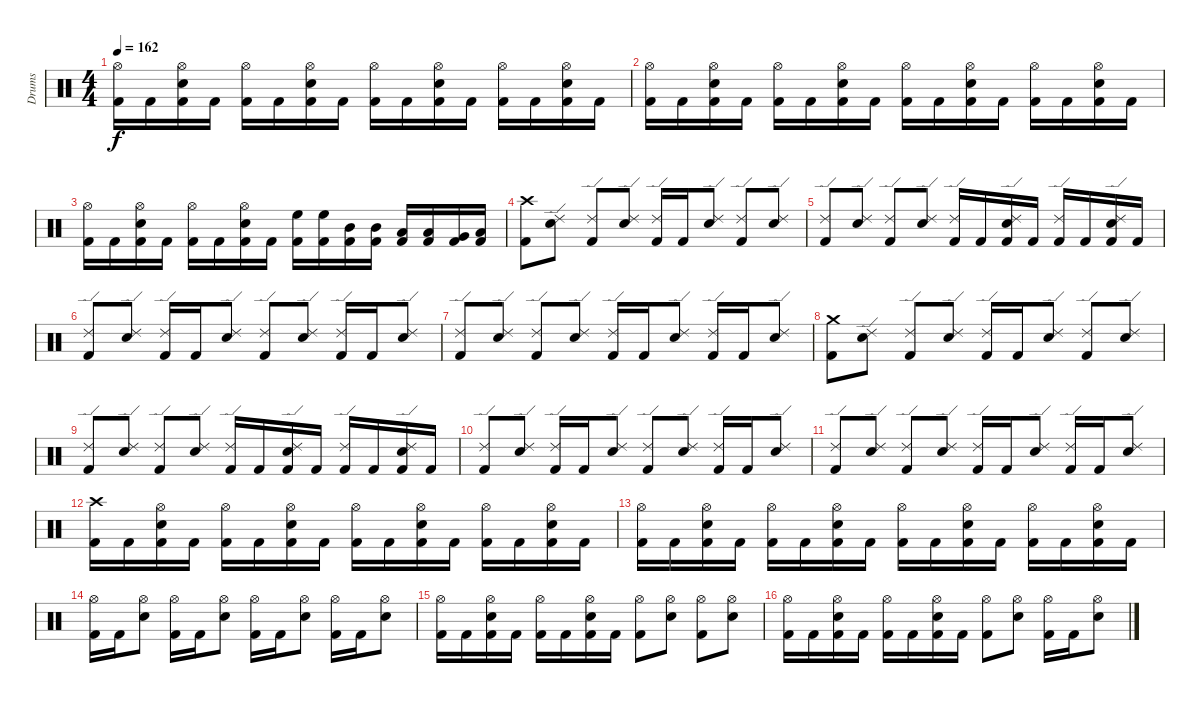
\track ("Drums" "Drums") {instrument percussion}
\staff {score}
\articulation defaults
\ts (4 4)
\tempo 162
\clef neutral
\ks c
("Kick (hit) 2" "Hi-Hat (open)").16{dy f} "Kick (hit) 2".16 ("Kick (hit) 2" "Snare (hit) 2" "Hi-Hat (open)").16 "Kick (hit) 2".16 ("Kick (hit) 2" "Hi-Hat (open)").16 "Kick (hit) 2".16 ("Kick (hit) 2" "Snare (hit) 2" "Hi-Hat (open)").16 "Kick (hit) 2".16 ("Kick (hit) 2" "Hi-Hat (open)").16 "Kick (hit) 2".16 ("Kick (hit) 2" "Snare (hit) 2" "Hi-Hat (open)").16 "Kick (hit) 2".16 ("Kick (hit) 2" "Hi-Hat (open)").16 "Kick (hit) 2".16 ("Kick (hit) 2" "Snare (hit) 2" "Hi-Hat (open)").16 "Kick (hit) 2".16 |
("Kick (hit) 2" "Hi-Hat (open)").16 "Kick (hit) 2".16 ("Kick (hit) 2" "Snare (hit) 2" "Hi-Hat (open)").16 "Kick (hit) 2".16 ("Kick (hit) 2" "Hi-Hat (open)").16 "Kick (hit) 2".16 ("Kick (hit) 2" "Snare (hit) 2" "Hi-Hat (open)").16 "Kick (hit) 2".16 ("Kick (hit) 2" "Hi-Hat (open)").16 "Kick (hit) 2".16 ("Kick (hit) 2" "Snare (hit) 2" "Hi-Hat (open)").16 "Kick (hit) 2".16 ("Kick (hit) 2" "Hi-Hat (open)").16 "Kick (hit) 2".16 ("Kick (hit) 2" "Snare (hit) 2" "Hi-Hat (open)").16 "Kick (hit) 2".16 |
("Kick (hit) 2" "Hi-Hat (open)").16 "Kick (hit) 2".16 ("Kick (hit) 2" "Snare (hit) 2" "Hi-Hat (open)").16 "Kick (hit) 2".16 ("Kick (hit) 2" "Hi-Hat (open)").16 "Kick (hit) 2".16 ("Kick (hit) 2" "Snare (hit) 2" "Hi-Hat (open)").16 "Kick (hit) 2".16 ("Kick (hit) 2" "High Floor Tom (hit)").16 ("Kick (hit) 2" "High Floor Tom (hit)").16 ("Kick (hit) 2" "Mid Tom (hit)").16 ("Kick (hit) 2" "Mid Tom (hit)").16 ("Kick (hit) 2" "Low Tom (hit)").16 ("Kick (hit) 2" "Low Tom (hit)").16 ("Kick (hit) 2" "Very Low Tom (hit)").16 ("Kick (hit) 2" "Low Floor Tom (hit)").16 |
\section ("" "")
("Kick (hit) 2" "Crash high (hit)").8 ("Snare (hit) 2" "Ride (edge) 2").8 ("Kick (hit) 2" "Ride (edge) 2").8 ("Snare (hit) 2" "Ride (edge) 2").8 ("Kick (hit) 2" "Ride (edge) 2").16 "Kick (hit) 2".16 ("Snare (hit) 2" "Ride (edge) 2").8 ("Kick (hit) 2" "Ride (edge) 2").8 ("Snare (hit) 2" "Ride (edge) 2").8 |
("Kick (hit) 2" "Ride (edge) 2").8 ("Snare (hit) 2" "Ride (edge) 2").8 ("Kick (hit) 2" "Ride (edge) 2").8 ("Snare (hit) 2" "Ride (edge) 2").8 ("Kick (hit) 2" "Ride (edge) 2").16 "Kick (hit) 2".16 ("Kick (hit) 2" "Snare (hit) 2" "Ride (edge) 2").16 "Kick (hit) 2".16 ("Kick (hit) 2" "Ride (edge) 2").16 "Kick (hit) 2".16 ("Kick (hit) 2" "Snare (hit) 2" "Ride (edge) 2").16 "Kick (hit) 2".16 |
("Kick (hit) 2" "Ride (edge) 2").8 ("Snare (hit) 2" "Ride (edge) 2").8 ("Kick (hit) 2" "Ride (edge) 2").16 "Kick (hit) 2".16 ("Snare (hit) 2" "Ride (edge) 2").8 ("Kick (hit) 2" "Ride (edge) 2").8 ("Snare (hit) 2" "Ride (edge) 2").8 ("Kick (hit) 2" "Ride (edge) 2").16 "Kick (hit) 2".16 ("Snare (hit) 2" "Ride (edge) 2").8 |
("Kick (hit) 2" "Ride (edge) 2").8 ("Snare (hit) 2" "Ride (edge) 2").8 ("Kick (hit) 2" "Ride (edge) 2").8 ("Snare (hit) 2" "Ride (edge) 2").8 ("Kick (hit) 2" "Ride (edge) 2").16 "Kick (hit) 2".16 ("Snare (hit) 2" "Ride (edge) 2").8 ("Kick (hit) 2" "Ride (edge) 2").16 "Kick (hit) 2".16 ("Snare (hit) 2" "Ride (edge) 2").8 |
("Kick (hit) 2" "Crash medium (hit)").8 ("Snare (hit) 2" "Ride (edge) 2").8 ("Kick (hit) 2" "Ride (edge) 2").8 ("Snare (hit) 2" "Ride (edge) 2").8 ("Kick (hit) 2" "Ride (edge) 2").16 "Kick (hit) 2".16 ("Snare (hit) 2" "Ride (edge) 2").8 ("Kick (hit) 2" "Ride (edge) 2").8 ("Snare (hit) 2" "Ride (edge) 2").8 |
("Kick (hit) 2" "Ride (edge) 2").8 ("Snare (hit) 2" "Ride (edge) 2").8 ("Kick (hit) 2" "Ride (edge) 2").8 ("Snare (hit) 2" "Ride (edge) 2").8 ("Kick (hit) 2" "Ride (edge) 2").16 "Kick (hit) 2".16 ("Kick (hit) 2" "Snare (hit) 2" "Ride (edge) 2").16 "Kick (hit) 2".16 ("Kick (hit) 2" "Ride (edge) 2").16 "Kick (hit) 2".16 ("Kick (hit) 2" "Snare (hit) 2" "Ride (edge) 2").16 "Kick (hit) 2".16 |
("Kick (hit) 2" "Ride (edge) 2").8 ("Snare (hit) 2" "Ride (edge) 2").8 ("Kick (hit) 2" "Ride (edge) 2").16 "Kick (hit) 2".16 ("Snare (hit) 2" "Ride (edge) 2").8 ("Kick (hit) 2" "Ride (edge) 2").8 ("Snare (hit) 2" "Ride (edge) 2").8 ("Kick (hit) 2" "Ride (edge) 2").16 "Kick (hit) 2".16 ("Snare (hit) 2" "Ride (edge) 2").8 |
("Kick (hit) 2" "Ride (edge) 2").8 ("Snare (hit) 2" "Ride (edge) 2").8 ("Kick (hit) 2" "Ride (edge) 2").8 ("Snare (hit) 2" "Ride (edge) 2").8 ("Kick (hit) 2" "Ride (edge) 2").16 "Kick (hit) 2".16 ("Snare (hit) 2" "Ride (edge) 2").8 ("Kick (hit) 2" "Ride (edge) 2").16 "Kick (hit) 2".16 ("Snare (hit) 2" "Ride (edge) 2").8 |
\section ("" "")
("Kick (hit) 2" "Crash high (hit)").16 "Kick (hit) 2".16 ("Kick (hit) 2" "Snare (hit) 2" "Hi-Hat (open)").16 "Kick (hit) 2".16 ("Kick (hit) 2" "Hi-Hat (open)").16 "Kick (hit) 2".16 ("Kick (hit) 2" "Snare (hit) 2" "Hi-Hat (open)").16 "Kick (hit) 2".16 ("Kick (hit) 2" "Hi-Hat (open)").16 "Kick (hit) 2".16 ("Kick (hit) 2" "Snare (hit) 2" "Hi-Hat (open)").16 "Kick (hit) 2".16 ("Kick (hit) 2" "Hi-Hat (open)").16 "Kick (hit) 2".16 ("Kick (hit) 2" "Snare (hit) 2" "Hi-Hat (open)").16 "Kick (hit) 2".16 |
("Kick (hit) 2" "Hi-Hat (open)").16 "Kick (hit) 2".16 ("Kick (hit) 2" "Snare (hit) 2" "Hi-Hat (open)").16 "Kick (hit) 2".16 ("Kick (hit) 2" "Hi-Hat (open)").16 "Kick (hit) 2".16 ("Kick (hit) 2" "Snare (hit) 2" "Hi-Hat (open)").16 "Kick (hit) 2".16 ("Kick (hit) 2" "Hi-Hat (open)").16 "Kick (hit) 2".16 ("Kick (hit) 2" "Snare (hit) 2" "Hi-Hat (open)").16 "Kick (hit) 2".16 ("Kick (hit) 2" "Hi-Hat (open)").16 "Kick (hit) 2".16 ("Kick (hit) 2" "Snare (hit) 2" "Hi-Hat (open)").16 "Kick (hit) 2".16 |
("Kick (hit) 2" "Hi-Hat (open)").16 "Kick (hit) 2".16 ("Snare (hit) 2" "Hi-Hat (open)").8 ("Kick (hit) 2" "Hi-Hat (open)").16 "Kick (hit) 2".16 ("Snare (hit) 2" "Hi-Hat (open)").8 ("Kick (hit) 2" "Hi-Hat (open)").16 "Kick (hit) 2".16 ("Snare (hit) 2" "Hi-Hat (open)").8 ("Kick (hit) 2" "Hi-Hat (open)").16 "Kick (hit) 2".16 ("Snare (hit) 2" "Hi-Hat (open)").8 |
("Kick (hit) 2" "Hi-Hat (open)").16 "Kick (hit) 2".16 ("Kick (hit) 2" "Snare (hit) 2" "Hi-Hat (open)").16 "Kick (hit) 2".16 ("Kick (hit) 2" "Hi-Hat (open)").16 "Kick (hit) 2".16 ("Kick (hit) 2" "Snare (hit) 2" "Hi-Hat (open)").16 "Kick (hit) 2".16 ("Kick (hit) 2" "Hi-Hat (open)").8 ("Snare (hit) 2" "Hi-Hat (open)").8 ("Kick (hit) 2" "Hi-Hat (open)").8 ("Snare (hit) 2" "Hi-Hat (open)").8 |
("Kick (hit) 2" "Hi-Hat (open)").16 "Kick (hit) 2".16 ("Kick (hit) 2" "Snare (hit) 2" "Hi-Hat (open)").16 "Kick (hit) 2".16 ("Kick (hit) 2" "Hi-Hat (open)").16 "Kick (hit) 2".16 ("Kick (hit) 2" "Snare (hit) 2" "Hi-Hat (open)").16 "Kick (hit) 2".16 ("Kick (hit) 2" "Hi-Hat (open)").8 ("Snare (hit) 2" "Hi-Hat (open)").8 ("Kick (hit) 2" "Hi-Hat (open)").16 "Kick (hit) 2".16 ("Snare (hit) 2" "Hi-Hat (open)").8
